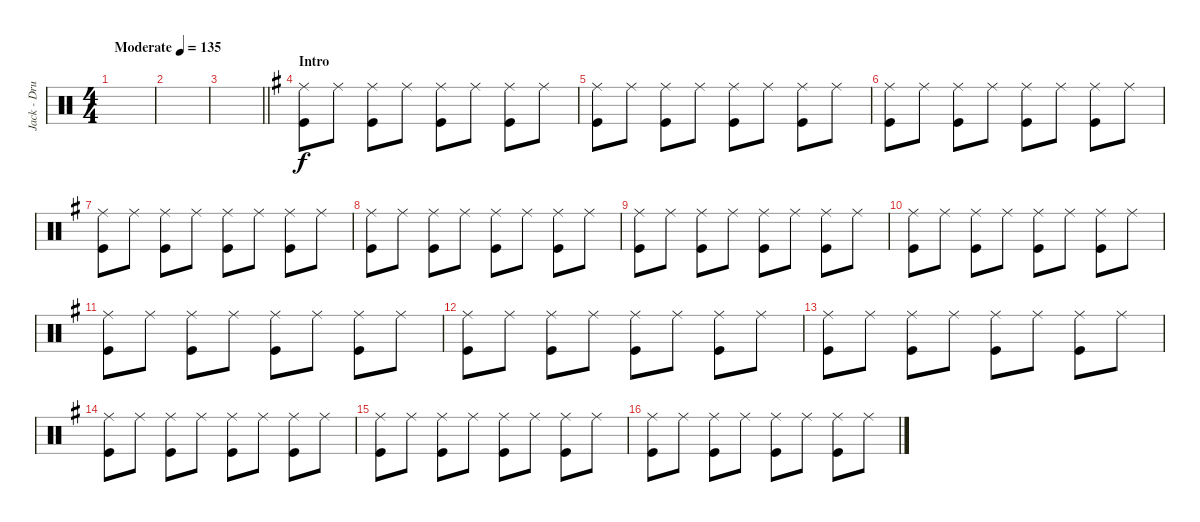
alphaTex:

\track ("Jack - Drums" "Jack - Dru") {instrument percussion}
\staff {score}
\articulation defaults
\ts (4 4)
\tempo (135 "Moderate")
\clef neutral
\ks c
|
|
\barLineRight lightlight
|
\section ("" "Intro")
\ks g
("Ride (middle)" "Kick (hit)").8 "Ride (middle)".8 ("Ride (middle)" "Kick (hit)").8 "Ride (middle)".8 ("Ride (middle)" "Kick (hit)").8 "Ride (middle)".8 ("Ride (middle)" "Kick (hit)").8 "Ride (middle)".8 |
("Ride (middle)" "Kick (hit)").8 "Ride (middle)".8 ("Ride (middle)" "Kick (hit)").8 "Ride (middle)".8 ("Ride (middle)" "Kick (hit)").8 "Ride (middle)".8 ("Ride (middle)" "Kick (hit)").8 "Ride (middle)".8 |
("Ride (middle)" "Kick (hit)").8 "Ride (middle)".8 ("Ride (middle)" "Kick (hit)").8 "Ride (middle)".8 ("Ride (middle)" "Kick (hit)").8 "Ride (middle)".8 ("Ride (middle)" "Kick (hit)").8 "Ride (middle)".8 |
("Ride (middle)" "Kick (hit)").8 "Ride (middle)".8 ("Ride (middle)" "Kick (hit)").8 "Ride (middle)".8 ("Ride (middle)" "Kick (hit)").8 "Ride (middle)".8 ("Ride (middle)" "Kick (hit)").8 "Ride (middle)".8 |
("Ride (middle)" "Kick (hit)").8 "Ride (middle)".8 ("Ride (middle)" "Kick (hit)").8 "Ride (middle)".8 ("Ride (middle)" "Kick (hit)").8 "Ride (middle)".8 ("Ride (middle)" "Kick (hit)").8 "Ride (middle)".8 |
("Ride (middle)" "Kick (hit)").8 "Ride (middle)".8 ("Ride (middle)" "Kick (hit)").8 "Ride (middle)".8 ("Ride (middle)" "Kick (hit)").8 "Ride (middle)".8 ("Ride (middle)" "Kick (hit)").8 "Ride (middle)".8 |
("Ride (middle)" "Kick (hit)").8 "Ride (middle)".8 ("Ride (middle)" "Kick (hit)").8 "Ride (middle)".8 ("Ride (middle)" "Kick (hit)").8 "Ride (middle)".8 ("Ride (middle)" "Kick (hit)").8 "Ride (middle)".8 |
("Ride (middle)" "Kick (hit)").8 "Ride (middle)".8 ("Ride (middle)" "Kick (hit)").8 "Ride (middle)".8 ("Ride (middle)" "Kick (hit)").8 "Ride (middle)".8 ("Ride (middle)" "Kick (hit)").8 "Ride (middle)".8 |
("Ride (middle)" "Kick (hit)").8 "Ride (middle)".8 ("Ride (middle)" "Kick (hit)").8 "Ride (middle)".8 ("Ride (middle)" "Kick (hit)").8 "Ride (middle)".8 ("Ride (middle)" "Kick (hit)").8 "Ride (middle)".8 |
("Ride (middle)" "Kick (hit)").8 "Ride (middle)".8 ("Ride (middle)" "Kick (hit)").8 "Ride (middle)".8 ("Ride (middle)" "Kick (hit)").8 "Ride (middle)".8 ("Ride (middle)" "Kick (hit)").8 "Ride (middle)".8 |
("Ride (middle)" "Kick (hit)").8 "Ride (middle)".8 ("Ride (middle)" "Kick (hit)").8 "Ride (middle)".8 ("Ride (middle)" "Kick (hit)").8 "Ride (middle)".8 ("Ride (middle)" "Kick (hit)").8 "Ride (middle)".8 |
("Ride (middle)" "Kick (hit)").8 "Ride (middle)".8 ("Ride (middle)" "Kick (hit)").8 "Ride (middle)".8 ("Ride (middle)" "Kick (hit)").8 "Ride (middle)".8 ("Ride (middle)" "Kick (hit)").8 "Ride (middle)".8 |
("Ride (middle)" "Kick (hit)").8 "Ride (middle)".8 ("Ride (middle)" "Kick (hit)").8 "Ride (middle)".8 ("Ride (middle)" "Kick (hit)").8 "Ride (middle)".8 ("Ride (middle)" "Kick (hit)").8 "Ride (middle)".8
